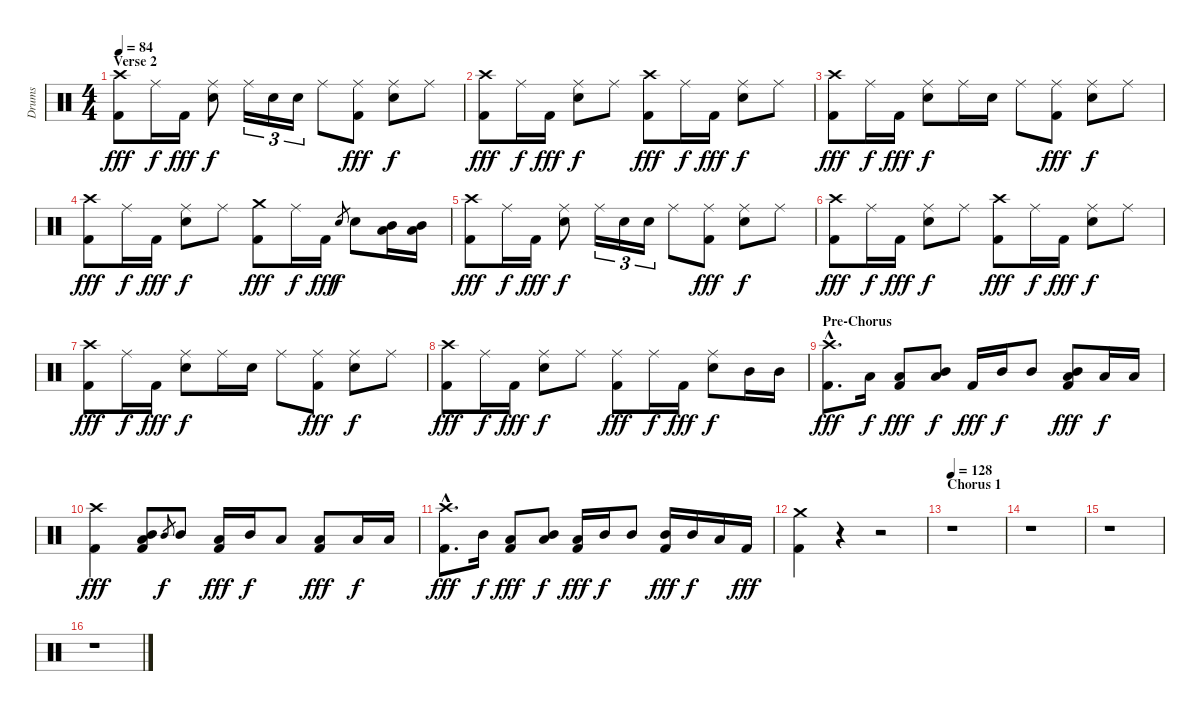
\track ("Drums" "Drums") {instrument percussion}
\staff {score}
\articulation defaults
\ts (4 4)
\section ("" "Verse 2")
\tempo 84
\clef neutral
\ks c
("Crash high (hit)" "Kick (hit) 2").8{dy fff} "Ride (middle)".16{dy f} "Kick (hit) 2".16{dy fff} ("Ride (middle)" "Electric Snare (hit)").8{dy f} "Ride (middle)".16{tu (3 2)} "Electric Snare (hit)".16{tu (3 2)} "Electric Snare (hit)".16{tu (3 2)} "Ride (middle)".8 ("Ride (middle)" "Kick (hit) 2").8{dy fff} ("Ride (middle)" "Electric Snare (hit)").8{dy f} "Ride (middle)".8 |
("Crash high (hit)" "Kick (hit) 2").8{dy fff} "Ride (middle)".16{dy f} "Kick (hit) 2".16{dy fff} ("Ride (middle)" "Electric Snare (hit)").8{dy f} "Ride (middle)".8 ("Crash high (hit)" "Kick (hit) 2").8{dy fff} "Ride (middle)".16{dy f} "Kick (hit) 2".16{dy fff} ("Ride (middle)" "Electric Snare (hit)").8{dy f} "Ride (middle)".8 |
("Crash high (hit)" "Kick (hit) 2").8{dy fff} "Ride (middle)".16{dy f} "Kick (hit) 2".16{dy fff} ("Ride (middle)" "Electric Snare (hit)").8{dy f} "Ride (middle)".16 "Electric Snare (hit)".16 "Ride (middle)".8 ("Ride (middle)" "Kick (hit) 2").8{dy fff} ("Ride (middle)" "Electric Snare (hit)").8{dy f} "Ride (middle)".8 |
("Crash high (hit)" "Kick (hit) 2").8{dy fff} "Ride (middle)".16{dy f} "Kick (hit) 2".16{dy fff} ("Ride (middle)" "Electric Snare (hit)").8{dy f} "Ride (middle)".8 ("Crash medium (hit)" "Kick (hit) 2").8{dy fff} "Ride (middle)".16{dy f} "Kick (hit) 2".16{dy fff} "Electric Snare (hit)".8{gr dy f} "Electric Snare (hit)".8 ("Mid Tom (hit)" "Low Tom (hit)").16 ("Mid Tom (hit)" "Low Tom (hit)").16 |
("Crash high (hit)" "Kick (hit) 2").8{dy fff} "Ride (middle)".16{dy f} "Kick (hit) 2".16{dy fff} ("Ride (middle)" "Electric Snare (hit)").8{dy f} "Ride (middle)".16{tu (3 2)} "Electric Snare (hit)".16{tu (3 2)} "Electric Snare (hit)".16{tu (3 2)} "Ride (middle)".8 ("Ride (middle)" "Kick (hit) 2").8{dy fff} ("Ride (middle)" "Electric Snare (hit)").8{dy f} "Ride (middle)".8 |
("Crash high (hit)" "Kick (hit) 2").8{dy fff} "Ride (middle)".16{dy f} "Kick (hit) 2".16{dy fff} ("Ride (middle)" "Electric Snare (hit)").8{dy f} "Ride (middle)".8 ("Crash high (hit)" "Kick (hit) 2").8{dy fff} "Ride (middle)".16{dy f} "Kick (hit) 2".16{dy fff} ("Ride (middle)" "Electric Snare (hit)").8{dy f} "Ride (middle)".8 |
("Crash high (hit)" "Kick (hit) 2").8{dy fff} "Ride (middle)".16{dy f} "Kick (hit) 2".16{dy fff} ("Ride (middle)" "Electric Snare (hit)").8{dy f} "Ride (middle)".16 "Electric Snare (hit)".16 "Ride (middle)".8 ("Ride (middle)" "Kick (hit) 2").8{dy fff} ("Ride (middle)" "Electric Snare (hit)").8{dy f} "Ride (middle)".8 |
("Crash high (hit)" "Kick (hit) 2").8{dy fff} "Ride (middle)".16{dy f} "Kick (hit) 2".16{dy fff} ("Ride (middle)" "Electric Snare (hit)").8{dy f} "Ride (middle)".8 ("Ride (middle)" "Kick (hit) 2").8{dy fff} "Ride (middle)".16{dy f} "Kick (hit) 2".16{dy fff} ("Ride (middle)" "Electric Snare (hit)").8{dy f} "Mid Tom (hit)".16 "Mid Tom (hit)".16 |
\section ("" "Pre-Chorus")
("Crash high (hit)"{hac} "Kick (hit) 2"{hac}).8{d dy fff} "Low Tom (hit)".16{dy f} ("Low Tom (hit)" "Kick (hit) 2").8{dy fff} ("Mid Tom (hit)" "Low Tom (hit)").8{dy f} "Kick (hit) 2".16{dy fff} "Mid Tom (hit)".16{dy f} "Mid Tom (hit)".8 ("Mid Tom (hit)" "Low Tom (hit)" "Kick (hit) 2").8{dy fff} "Low Tom (hit)".16{dy f} "Low Tom (hit)".16 |
("Crash high (hit)" "Kick (hit) 2").4{dy fff} ("Mid Tom (hit)" "Low Tom (hit)" "Kick (hit) 2").8 "Mid Tom (hit)".8{gr dy f} "Mid Tom (hit)".8 ("Low Tom (hit)" "Kick (hit) 2").16{dy fff} "Mid Tom (hit)".16{dy f} "Low Tom (hit)".8 ("Low Tom (hit)" "Kick (hit) 2").8{dy fff} "Low Tom (hit)".16{dy f} "Low Tom (hit)".16 |
("Crash high (hit)"{hac} "Kick (hit) 2"{hac}).8{d dy fff} "Mid Tom (hit)".16{dy f} ("Low Tom (hit)" "Kick (hit) 2").8{dy fff} ("Mid Tom (hit)" "Low Tom (hit)").8{dy f} ("Low Tom (hit)" "Kick (hit) 2").16{dy fff} "Mid Tom (hit)".16{dy f} "Mid Tom (hit)".8 ("Mid Tom (hit)" "Kick (hit) 2").16{dy fff} "Mid Tom (hit)".16{dy f} "Low Tom (hit)".16 "Kick (hit) 2".16{dy fff} |
("Crash medium (hit)" "Kick (hit) 2").4 r.4 r.2 |
\section ("" "Chorus 1")
\tempo 128
r.1 |
r.1 |
r.1 |
r.1
